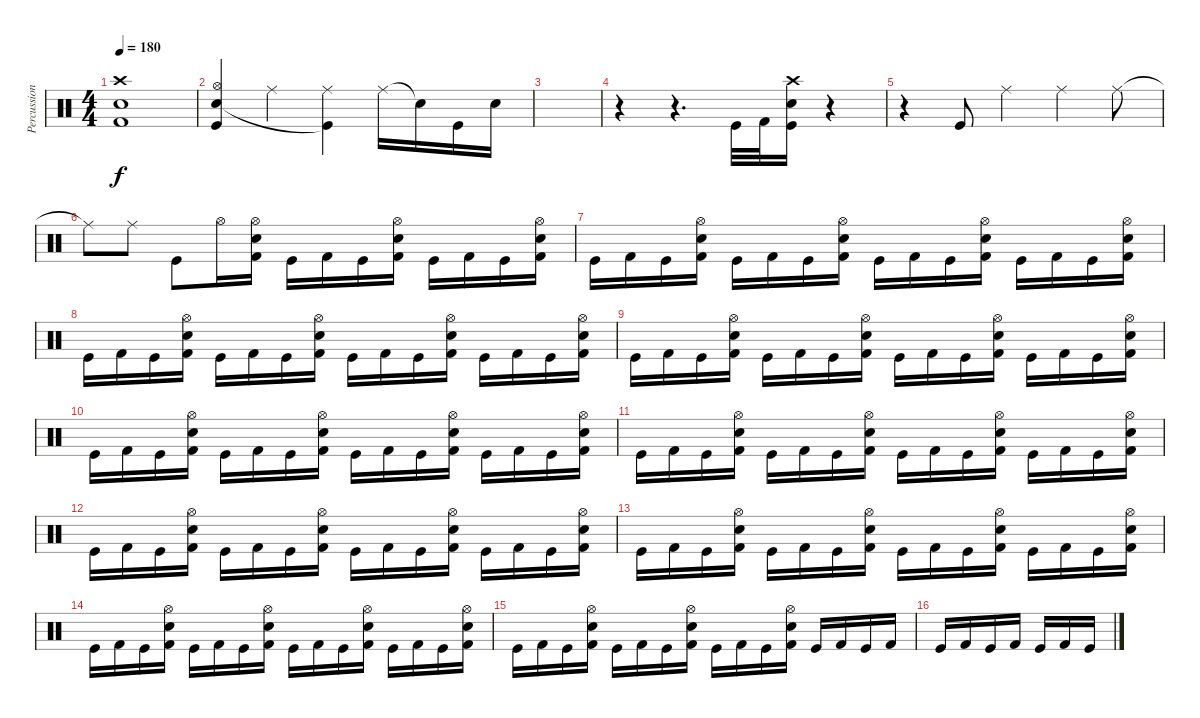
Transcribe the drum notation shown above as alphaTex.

\track ("Percussions" "Percussion") {instrument percussion}
\staff {score}
\articulation defaults
\ts (4 4)
\tempo 180
\clef neutral
\ks c
("Crash high (hit)" "Electric Snare (hit)" "Kick (hit) 2").1{dy f} |
("Hi-Hat (open)" "Electric Snare (hit)" "Kick (hit)").4 "Ride (middle)".4 ("Ride (middle)" "Kick (hit)"{t}).4 "Ride (middle)".16 "Snare (hit)"{t}.16 "Kick (hit)".16 "Electric Snare (hit)".16 |
|
r.4 r.4{d} "Kick (hit)".32 "Kick (hit) 2".32 ("Crash high (hit)" "Kick (hit)" "Electric Snare (hit)").16 r.4 |
r.4 "Kick (hit)".8 "Ride (middle)".4 "Ride (middle)".4 "Ride (middle)".8 |
"Ride (middle)"{t}.8 "Ride (middle)".8 "Kick (hit)".8 "Hi-Hat (open)".16 ("Hi-Hat (open)" "Electric Snare (hit)" "Kick (hit) 2").16 "Kick (hit)".16 "Kick (hit) 2".16 "Kick (hit)".16 ("Hi-Hat (open)" "Electric Snare (hit)" "Kick (hit) 2").16 "Kick (hit)".16 "Kick (hit) 2".16 "Kick (hit)".16 ("Hi-Hat (open)" "Electric Snare (hit)" "Kick (hit) 2").16 |
"Kick (hit)".16 "Kick (hit) 2".16 "Kick (hit)".16 ("Hi-Hat (open)" "Electric Snare (hit)" "Kick (hit) 2").16 "Kick (hit)".16 "Kick (hit) 2".16 "Kick (hit)".16 ("Hi-Hat (open)" "Electric Snare (hit)" "Kick (hit) 2").16 "Kick (hit)".16 "Kick (hit) 2".16 "Kick (hit)".16 ("Hi-Hat (open)" "Electric Snare (hit)" "Kick (hit) 2").16 "Kick (hit)".16 "Kick (hit) 2".16 "Kick (hit)".16 ("Hi-Hat (open)" "Electric Snare (hit)" "Kick (hit) 2").16 |
"Kick (hit)".16 "Kick (hit) 2".16 "Kick (hit)".16 ("Hi-Hat (open)" "Electric Snare (hit)" "Kick (hit) 2").16 "Kick (hit)".16 "Kick (hit) 2".16 "Kick (hit)".16 ("Hi-Hat (open)" "Electric Snare (hit)" "Kick (hit) 2").16 "Kick (hit)".16 "Kick (hit) 2".16 "Kick (hit)".16 ("Hi-Hat (open)" "Electric Snare (hit)" "Kick (hit) 2").16 "Kick (hit)".16 "Kick (hit) 2".16 "Kick (hit)".16 ("Hi-Hat (open)" "Electric Snare (hit)" "Kick (hit) 2").16 |
"Kick (hit)".16 "Kick (hit) 2".16 "Kick (hit)".16 ("Hi-Hat (open)" "Electric Snare (hit)" "Kick (hit) 2").16 "Kick (hit)".16 "Kick (hit) 2".16 "Kick (hit)".16 ("Hi-Hat (open)" "Electric Snare (hit)" "Kick (hit) 2").16 "Kick (hit)".16 "Kick (hit) 2".16 "Kick (hit)".16 ("Hi-Hat (open)" "Electric Snare (hit)" "Kick (hit) 2").16 "Kick (hit)".16 "Kick (hit) 2".16 "Kick (hit)".16 ("Hi-Hat (open)" "Electric Snare (hit)" "Kick (hit) 2").16 |
"Kick (hit)".16 "Kick (hit) 2".16 "Kick (hit)".16 ("Hi-Hat (open)" "Electric Snare (hit)" "Kick (hit) 2").16 "Kick (hit)".16 "Kick (hit) 2".16 "Kick (hit)".16 ("Hi-Hat (open)" "Electric Snare (hit)" "Kick (hit) 2").16 "Kick (hit)".16 "Kick (hit) 2".16 "Kick (hit)".16 ("Hi-Hat (open)" "Electric Snare (hit)" "Kick (hit) 2").16 "Kick (hit)".16 "Kick (hit) 2".16 "Kick (hit)".16 ("Hi-Hat (open)" "Electric Snare (hit)" "Kick (hit) 2").16 |
"Kick (hit)".16 "Kick (hit) 2".16 "Kick (hit)".16 ("Hi-Hat (open)" "Electric Snare (hit)" "Kick (hit) 2").16 "Kick (hit)".16 "Kick (hit) 2".16 "Kick (hit)".16 ("Hi-Hat (open)" "Electric Snare (hit)" "Kick (hit) 2").16 "Kick (hit)".16 "Kick (hit) 2".16 "Kick (hit)".16 ("Hi-Hat (open)" "Electric Snare (hit)" "Kick (hit) 2").16 "Kick (hit)".16 "Kick (hit) 2".16 "Kick (hit)".16 ("Hi-Hat (open)" "Electric Snare (hit)" "Kick (hit) 2").16 |
"Kick (hit)".16 "Kick (hit) 2".16 "Kick (hit)".16 ("Hi-Hat (open)" "Electric Snare (hit)" "Kick (hit) 2").16 "Kick (hit)".16 "Kick (hit) 2".16 "Kick (hit)".16 ("Hi-Hat (open)" "Electric Snare (hit)" "Kick (hit) 2").16 "Kick (hit)".16 "Kick (hit) 2".16 "Kick (hit)".16 ("Hi-Hat (open)" "Electric Snare (hit)" "Kick (hit) 2").16 "Kick (hit)".16 "Kick (hit) 2".16 "Kick (hit)".16 ("Hi-Hat (open)" "Electric Snare (hit)" "Kick (hit) 2").16 |
"Kick (hit)".16 "Kick (hit) 2".16 "Kick (hit)".16 ("Hi-Hat (open)" "Electric Snare (hit)" "Kick (hit) 2").16 "Kick (hit)".16 "Kick (hit) 2".16 "Kick (hit)".16 ("Hi-Hat (open)" "Electric Snare (hit)" "Kick (hit) 2").16 "Kick (hit)".16 "Kick (hit) 2".16 "Kick (hit)".16 ("Hi-Hat (open)" "Electric Snare (hit)" "Kick (hit) 2").16 "Kick (hit)".16 "Kick (hit) 2".16 "Kick (hit)".16 ("Hi-Hat (open)" "Electric Snare (hit)" "Kick (hit) 2").16 |
"Kick (hit)".16 "Kick (hit) 2".16 "Kick (hit)".16 ("Hi-Hat (open)" "Electric Snare (hit)" "Kick (hit) 2").16 "Kick (hit)".16 "Kick (hit) 2".16 "Kick (hit)".16 ("Hi-Hat (open)" "Electric Snare (hit)" "Kick (hit) 2").16 "Kick (hit)".16 "Kick (hit) 2".16 "Kick (hit)".16 ("Hi-Hat (open)" "Electric Snare (hit)" "Kick (hit) 2").16 "Kick (hit)".16 "Kick (hit) 2".16 "Kick (hit)".16 ("Hi-Hat (open)" "Electric Snare (hit)" "Kick (hit) 2").16 |
"Kick (hit)".16 "Kick (hit) 2".16 "Kick (hit)".16 ("Hi-Hat (open)" "Electric Snare (hit)" "Kick (hit) 2").16 "Kick (hit)".16 "Kick (hit) 2".16 "Kick (hit)".16 ("Hi-Hat (open)" "Electric Snare (hit)" "Kick (hit) 2").16 "Kick (hit)".16 "Kick (hit) 2".16 "Kick (hit)".16 ("Hi-Hat (open)" "Electric Snare (hit)" "Kick (hit) 2").16 "Kick (hit)".16 "Kick (hit) 2".16 "Kick (hit)".16 "Kick (hit) 2".16 |
"Kick (hit)".16 "Kick (hit) 2".16 "Kick (hit)".16 "Kick (hit) 2".16 "Kick (hit)".16 "Kick (hit) 2".16 "Kick (hit)".16
